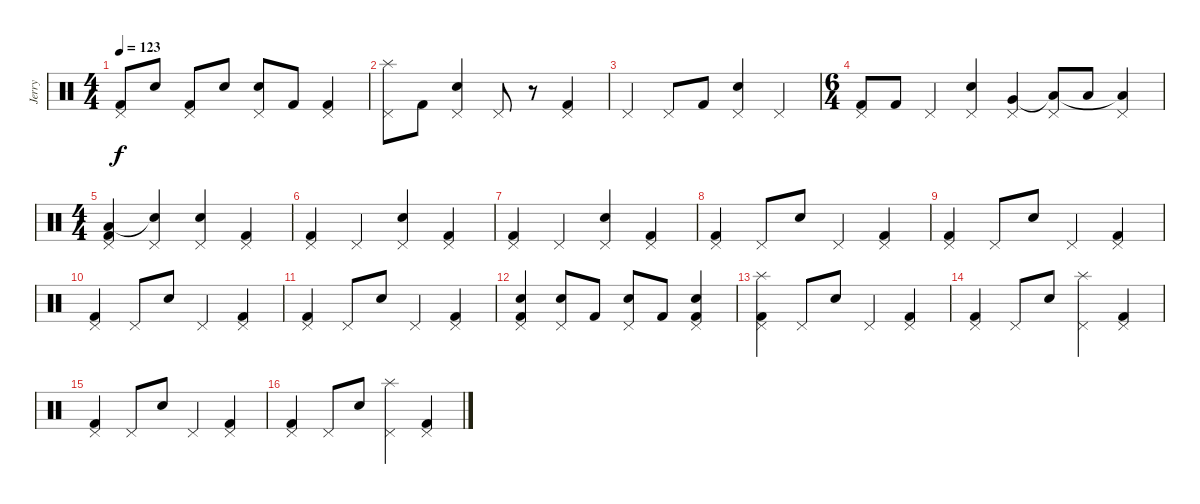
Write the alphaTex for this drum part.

\track ("Jerry" "Jerry") {instrument percussion}
\staff {score}
\articulation defaults
\ts (4 4)
\tempo 123
\clef neutral
\ks c
("Pedal Hi-Hat (hit)" "Kick (hit) 2").8{dy f} "Snare (hit) 2".8 ("Pedal Hi-Hat (hit)" "Kick (hit) 2").8 "Snare (hit) 2".8 ("Pedal Hi-Hat (hit)" "Snare (hit) 2").8 "Kick (hit) 2".8 ("Pedal Hi-Hat (hit)" "Kick (hit) 2").4 |
("Pedal Hi-Hat (hit)" "Splash (hit)").8 "Kick (hit) 2".8 ("Pedal Hi-Hat (hit)" "Snare (hit) 2").4 "Pedal Hi-Hat (hit)".8 r.8 ("Pedal Hi-Hat (hit)" "Kick (hit) 2").4 |
"Pedal Hi-Hat (hit)".4 "Pedal Hi-Hat (hit)".8 "Kick (hit) 2".8 ("Pedal Hi-Hat (hit)" "Snare (hit) 2").4 "Pedal Hi-Hat (hit)".4 |
\ts (6 4)
("Pedal Hi-Hat (hit)" "Kick (hit) 2").8 "Kick (hit) 2".8 "Pedal Hi-Hat (hit)".4 ("Pedal Hi-Hat (hit)" "Snare (hit) 2").4 ("Pedal Hi-Hat (hit)" "Very Low Tom (hit)").4 ("Pedal Hi-Hat (hit)" "Low Tom (hit)"{t}).8 "Low Tom (hit)".8 ("Pedal Hi-Hat (hit)" "Low Floor Tom (hit)"{t}).4 |
\ts (4 4)
("Pedal Hi-Hat (hit)" "Low Floor Tom (hit)" "Kick (hit) 2").4 ("Pedal Hi-Hat (hit)" "Snare (hit)"{t}).4 ("Pedal Hi-Hat (hit)" "Snare (hit) 2").4 ("Pedal Hi-Hat (hit)" "Kick (hit) 2").4 |
("Pedal Hi-Hat (hit)" "Kick (hit) 2").4 "Pedal Hi-Hat (hit)".4 ("Pedal Hi-Hat (hit)" "Snare (hit) 2").4 ("Pedal Hi-Hat (hit)" "Kick (hit) 2").4 |
("Pedal Hi-Hat (hit)" "Kick (hit) 2").4 "Pedal Hi-Hat (hit)".4 ("Pedal Hi-Hat (hit)" "Snare (hit) 2").4 ("Pedal Hi-Hat (hit)" "Kick (hit) 2").4 |
("Pedal Hi-Hat (hit)" "Kick (hit) 2").4 "Pedal Hi-Hat (hit)".8 "Snare (hit) 2".8 "Pedal Hi-Hat (hit)".4 ("Pedal Hi-Hat (hit)" "Kick (hit) 2").4 |
("Pedal Hi-Hat (hit)" "Kick (hit) 2").4 "Pedal Hi-Hat (hit)".8 "Snare (hit) 2".8 "Pedal Hi-Hat (hit)".4 ("Pedal Hi-Hat (hit)" "Kick (hit) 2").4 |
("Pedal Hi-Hat (hit)" "Kick (hit) 2").4 "Pedal Hi-Hat (hit)".8 "Snare (hit) 2".8 "Pedal Hi-Hat (hit)".4 ("Pedal Hi-Hat (hit)" "Kick (hit) 2").4 |
("Pedal Hi-Hat (hit)" "Kick (hit) 2").4 "Pedal Hi-Hat (hit)".8 "Snare (hit) 2".8 "Pedal Hi-Hat (hit)".4 ("Pedal Hi-Hat (hit)" "Kick (hit) 2").4 |
("Pedal Hi-Hat (hit)" "Snare (hit) 2" "Kick (hit) 2").4 ("Pedal Hi-Hat (hit)" "Snare (hit) 2").8 "Kick (hit) 2".8 ("Pedal Hi-Hat (hit)" "Snare (hit) 2").8 "Kick (hit) 2".8 ("Pedal Hi-Hat (hit)" "Snare (hit) 2" "Kick (hit) 2").4 |
("Pedal Hi-Hat (hit)" "Splash (hit)" "Kick (hit) 2").4 "Pedal Hi-Hat (hit)".8 "Snare (hit) 2".8 "Pedal Hi-Hat (hit)".4 ("Pedal Hi-Hat (hit)" "Kick (hit) 2").4 |
("Pedal Hi-Hat (hit)" "Kick (hit) 2").4 "Pedal Hi-Hat (hit)".8 "Snare (hit) 2".8 ("Pedal Hi-Hat (hit)" "Splash (hit)").4 ("Pedal Hi-Hat (hit)" "Kick (hit) 2").4 |
("Pedal Hi-Hat (hit)" "Kick (hit) 2").4 "Pedal Hi-Hat (hit)".8 "Snare (hit) 2".8 "Pedal Hi-Hat (hit)".4 ("Pedal Hi-Hat (hit)" "Kick (hit) 2").4 |
("Pedal Hi-Hat (hit)" "Kick (hit) 2").4 "Pedal Hi-Hat (hit)".8 "Snare (hit) 2".8 ("Pedal Hi-Hat (hit)" "Splash (hit)").4 ("Pedal Hi-Hat (hit)" "Kick (hit) 2").4
